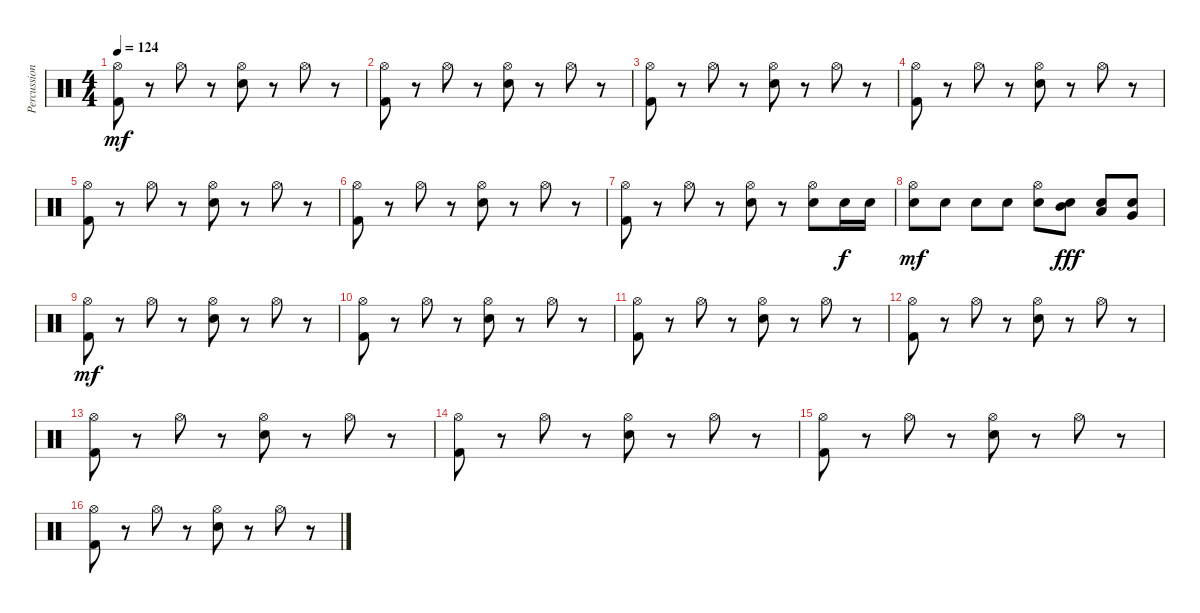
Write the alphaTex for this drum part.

\track ("Percussion" "Percussion") {instrument percussion}
\staff {score}
\articulation defaults
\ts (4 4)
\tempo 124
\clef neutral
\ks c
("Kick (hit) 2" "Hi-Hat (open)").8{dy mf} r.8 "Hi-Hat (open)".8 r.8 ("Electric Snare (hit)" "Hi-Hat (open)").8 r.8 "Hi-Hat (open)".8 r.8 |
("Kick (hit) 2" "Hi-Hat (open)").8 r.8 "Hi-Hat (open)".8 r.8 ("Electric Snare (hit)" "Hi-Hat (open)").8 r.8 "Hi-Hat (open)".8 r.8 |
("Kick (hit) 2" "Hi-Hat (open)").8 r.8 "Hi-Hat (open)".8 r.8 ("Electric Snare (hit)" "Hi-Hat (open)").8 r.8 "Hi-Hat (open)".8 r.8 |
("Kick (hit) 2" "Hi-Hat (open)").8 r.8 "Hi-Hat (open)".8 r.8 ("Electric Snare (hit)" "Hi-Hat (open)").8 r.8 "Hi-Hat (open)".8 r.8 |
("Kick (hit) 2" "Hi-Hat (open)").8 r.8 "Hi-Hat (open)".8 r.8 ("Electric Snare (hit)" "Hi-Hat (open)").8 r.8 "Hi-Hat (open)".8 r.8 |
("Kick (hit) 2" "Hi-Hat (open)").8 r.8 "Hi-Hat (open)".8 r.8 ("Electric Snare (hit)" "Hi-Hat (open)").8 r.8 "Hi-Hat (open)".8 r.8 |
("Kick (hit) 2" "Hi-Hat (open)").8 r.8 "Hi-Hat (open)".8 r.8 ("Electric Snare (hit)" "Hi-Hat (open)").8 r.8 ("Electric Snare (hit)" "Hi-Hat (open)").8 "Electric Snare (hit)".16{dy f} "Electric Snare (hit)".16 |
("Electric Snare (hit)" "Hi-Hat (open)").8{dy mf} "Electric Snare (hit)".8 "Electric Snare (hit)".8 "Electric Snare (hit)".8 ("Electric Snare (hit)" "Hi-Hat (open)").8 ("Electric Snare (hit)" "Mid Tom (hit)").8{dy fff} ("Electric Snare (hit)" "Low Tom (hit)").8 ("Electric Snare (hit)" "Very Low Tom (hit)").8 |
("Kick (hit) 2" "Hi-Hat (open)").8{dy mf} r.8 "Hi-Hat (open)".8 r.8 ("Electric Snare (hit)" "Hi-Hat (open)").8 r.8 "Hi-Hat (open)".8 r.8 |
("Kick (hit) 2" "Hi-Hat (open)").8 r.8 "Hi-Hat (open)".8 r.8 ("Electric Snare (hit)" "Hi-Hat (open)").8 r.8 "Hi-Hat (open)".8 r.8 |
("Kick (hit) 2" "Hi-Hat (open)").8 r.8 "Hi-Hat (open)".8 r.8 ("Electric Snare (hit)" "Hi-Hat (open)").8 r.8 "Hi-Hat (open)".8 r.8 |
("Kick (hit) 2" "Hi-Hat (open)").8 r.8 "Hi-Hat (open)".8 r.8 ("Electric Snare (hit)" "Hi-Hat (open)").8 r.8 "Hi-Hat (open)".8 r.8 |
("Kick (hit) 2" "Hi-Hat (open)").8 r.8 "Hi-Hat (open)".8 r.8 ("Electric Snare (hit)" "Hi-Hat (open)").8 r.8 "Hi-Hat (open)".8 r.8 |
("Kick (hit) 2" "Hi-Hat (open)").8 r.8 "Hi-Hat (open)".8 r.8 ("Electric Snare (hit)" "Hi-Hat (open)").8 r.8 "Hi-Hat (open)".8 r.8 |
("Kick (hit) 2" "Hi-Hat (open)").8 r.8 "Hi-Hat (open)".8 r.8 ("Electric Snare (hit)" "Hi-Hat (open)").8 r.8 "Hi-Hat (open)".8 r.8 |
("Kick (hit) 2" "Hi-Hat (open)").8 r.8 "Hi-Hat (open)".8 r.8 ("Electric Snare (hit)" "Hi-Hat (open)").8 r.8 "Hi-Hat (open)".8 r.8
